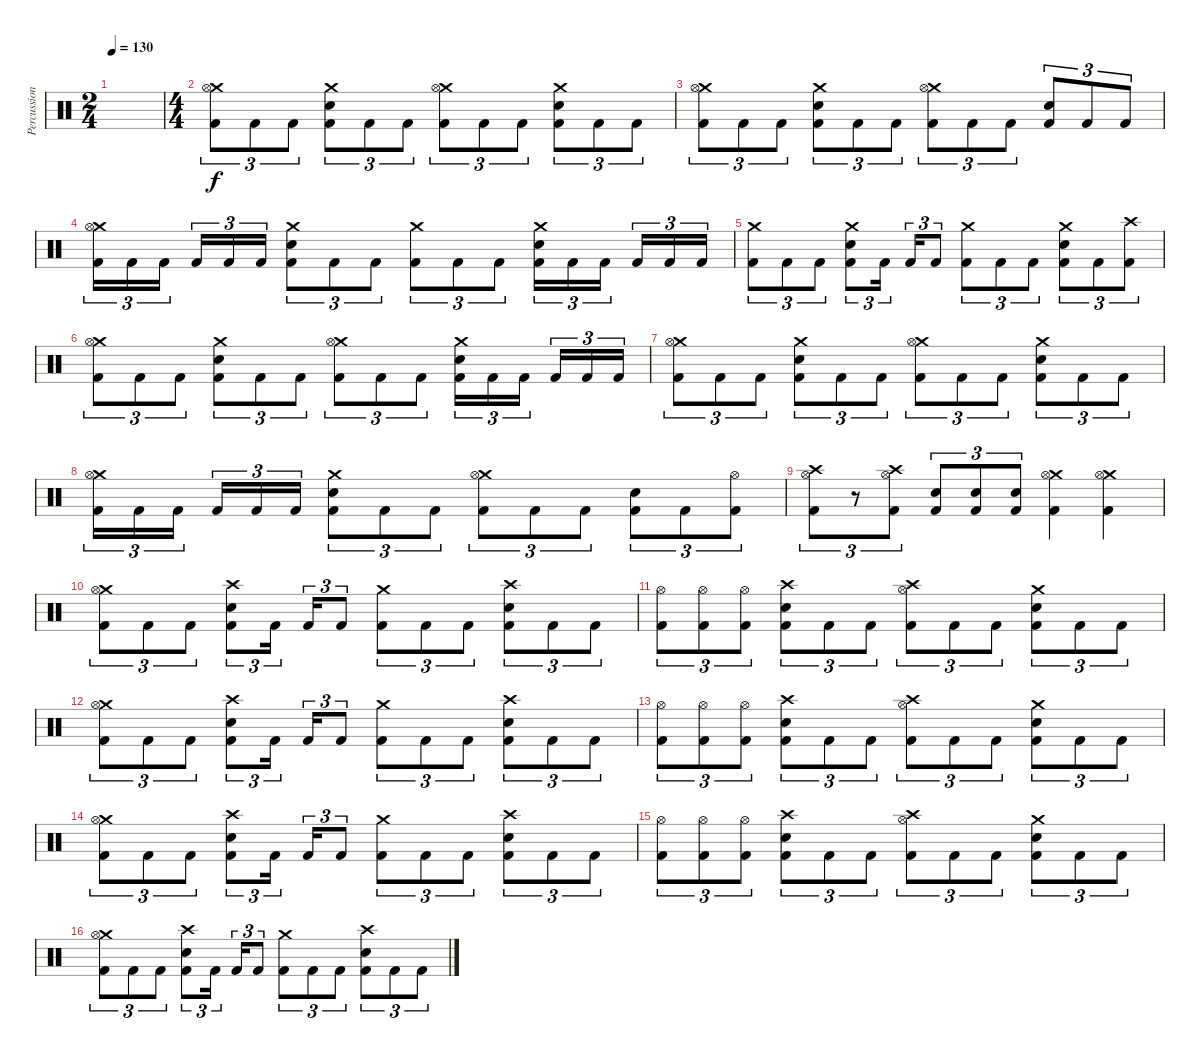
\track ("Percussion" "Percussion") {instrument percussion}
\staff {score}
\articulation defaults
\ts (2 4)
\tempo 130
\clef neutral
\ks c
|
\ts (4 4)
("Crash medium (hit)" "Hi-Hat (open)" "Kick (hit) 2").8{tu (3 2)} "Kick (hit) 2".8{tu (3 2)} "Kick (hit) 2".8{tu (3 2)} ("Crash medium (hit)" "Snare (hit) 2" "Kick (hit) 2").8{tu (3 2)} "Kick (hit) 2".8{tu (3 2)} "Kick (hit) 2".8{tu (3 2)} ("Crash medium (hit)" "Hi-Hat (open)" "Kick (hit) 2").8{tu (3 2)} "Kick (hit) 2".8{tu (3 2)} "Kick (hit) 2".8{tu (3 2)} ("Crash medium (hit)" "Snare (hit) 2" "Kick (hit) 2").8{tu (3 2)} "Kick (hit) 2".8{tu (3 2)} "Kick (hit) 2".8{tu (3 2)} |
("Crash medium (hit)" "Hi-Hat (open)" "Kick (hit) 2").8{tu (3 2)} "Kick (hit) 2".8{tu (3 2)} "Kick (hit) 2".8{tu (3 2)} ("Crash medium (hit)" "Snare (hit) 2" "Kick (hit) 2").8{tu (3 2)} "Kick (hit) 2".8{tu (3 2)} "Kick (hit) 2".8{tu (3 2)} ("Crash medium (hit)" "Hi-Hat (open)" "Kick (hit) 2").8{tu (3 2)} "Kick (hit) 2".8{tu (3 2)} "Kick (hit) 2".8{tu (3 2)} ("Snare (hit) 2" "Kick (hit) 2").8{tu (3 2)} "Kick (hit) 2".8{tu (3 2)} "Kick (hit) 2".8{tu (3 2)} |
("Crash medium (hit)" "Hi-Hat (open)" "Kick (hit) 2").16{tu (3 2)} "Kick (hit) 2".16{tu (3 2)} "Kick (hit) 2".16{tu (3 2)} "Kick (hit) 2".16{tu (3 2)} "Kick (hit) 2".16{tu (3 2)} "Kick (hit) 2".16{tu (3 2)} ("Crash medium (hit)" "Snare (hit) 2" "Kick (hit) 2").8{tu (3 2)} "Kick (hit) 2".8{tu (3 2)} "Kick (hit) 2".8{tu (3 2)} ("Crash medium (hit)" "Kick (hit) 2").8{tu (3 2)} "Kick (hit) 2".8{tu (3 2)} "Kick (hit) 2".8{tu (3 2)} ("Crash medium (hit)" "Snare (hit) 2" "Kick (hit) 2").16{tu (3 2)} "Kick (hit) 2".16{tu (3 2)} "Kick (hit) 2".16{tu (3 2)} "Kick (hit) 2".16{tu (3 2)} "Kick (hit) 2".16{tu (3 2)} "Kick (hit) 2".16{tu (3 2)} |
("Crash medium (hit)" "Kick (hit) 2").8{tu (3 2)} "Kick (hit) 2".8{tu (3 2)} "Kick (hit) 2".8{tu (3 2)} ("Crash medium (hit)" "Snare (hit) 2" "Kick (hit) 2").8{tu (3 2)} "Kick (hit) 2".16{tu (3 2)} "Kick (hit) 2".16{tu (3 2)} "Kick (hit) 2".8{tu (3 2)} ("Crash medium (hit)" "Kick (hit) 2").8{tu (3 2)} "Kick (hit) 2".8{tu (3 2)} "Kick (hit) 2".8{tu (3 2)} ("Crash medium (hit)" "Snare (hit) 2" "Kick (hit) 2").8{tu (3 2)} "Kick (hit) 2".8{tu (3 2)} ("Crash high (hit)" "Kick (hit) 2").8{tu (3 2)} |
("Crash medium (hit)" "Hi-Hat (open)" "Kick (hit) 2").8{tu (3 2)} "Kick (hit) 2".8{tu (3 2)} "Kick (hit) 2".8{tu (3 2)} ("Crash medium (hit)" "Snare (hit) 2" "Kick (hit) 2").8{tu (3 2)} "Kick (hit) 2".8{tu (3 2)} "Kick (hit) 2".8{tu (3 2)} ("Crash medium (hit)" "Hi-Hat (open)" "Kick (hit) 2").8{tu (3 2)} "Kick (hit) 2".8{tu (3 2)} "Kick (hit) 2".8{tu (3 2)} ("Crash medium (hit)" "Snare (hit) 2" "Kick (hit) 2").16{tu (3 2)} "Kick (hit) 2".16{tu (3 2)} "Kick (hit) 2".16{tu (3 2)} "Kick (hit) 2".16{tu (3 2)} "Kick (hit) 2".16{tu (3 2)} "Kick (hit) 2".16{tu (3 2)} |
("Crash medium (hit)" "Hi-Hat (open)" "Kick (hit) 2").8{tu (3 2)} "Kick (hit) 2".8{tu (3 2)} "Kick (hit) 2".8{tu (3 2)} ("Crash medium (hit)" "Snare (hit) 2" "Kick (hit) 2").8{tu (3 2)} "Kick (hit) 2".8{tu (3 2)} "Kick (hit) 2".8{tu (3 2)} ("Crash medium (hit)" "Hi-Hat (open)" "Kick (hit) 2").8{tu (3 2)} "Kick (hit) 2".8{tu (3 2)} "Kick (hit) 2".8{tu (3 2)} ("Crash medium (hit)" "Snare (hit) 2" "Kick (hit) 2").8{tu (3 2)} "Kick (hit) 2".8{tu (3 2)} "Kick (hit) 2".8{tu (3 2)} |
("Crash medium (hit)" "Hi-Hat (open)" "Kick (hit) 2").16{tu (3 2)} "Kick (hit) 2".16{tu (3 2)} "Kick (hit) 2".16{tu (3 2)} "Kick (hit) 2".16{tu (3 2)} "Kick (hit) 2".16{tu (3 2)} "Kick (hit) 2".16{tu (3 2)} ("Crash medium (hit)" "Snare (hit) 2" "Kick (hit) 2").8{tu (3 2)} "Kick (hit) 2".8{tu (3 2)} "Kick (hit) 2".8{tu (3 2)} ("Crash medium (hit)" "Hi-Hat (open)" "Kick (hit) 2").8{tu (3 2)} "Kick (hit) 2".8{tu (3 2)} "Kick (hit) 2".8{tu (3 2)} ("Snare (hit) 2" "Kick (hit) 2").8{tu (3 2)} "Kick (hit) 2".8{tu (3 2)} ("Hi-Hat (open)" "Kick (hit) 2").8{tu (3 2)} |
("Crash high (hit)" "Hi-Hat (open)" "Kick (hit) 2").8{tu (3 2)} r.8{tu (3 2)} ("Crash high (hit)" "Hi-Hat (open)" "Kick (hit) 2").8{tu (3 2)} ("Snare (hit) 2" "Kick (hit) 2").8{tu (3 2)} ("Snare (hit) 2" "Kick (hit) 2").8{tu (3 2)} ("Snare (hit) 2" "Kick (hit) 2").8{tu (3 2)} ("Crash medium (hit)" "Hi-Hat (open)" "Kick (hit) 2").4 ("Crash medium (hit)" "Hi-Hat (open)" "Kick (hit) 2").4 |
("Crash medium (hit)" "Hi-Hat (open)" "Kick (hit) 2").8{tu (3 2)} "Kick (hit) 2".8{tu (3 2)} "Kick (hit) 2".8{tu (3 2)} ("Crash high (hit)" "Snare (hit) 2" "Kick (hit) 2").8{tu (3 2)} "Kick (hit) 2".16{tu (3 2)} "Kick (hit) 2".16{tu (3 2)} "Kick (hit) 2".8{tu (3 2)} ("Crash medium (hit)" "Kick (hit) 2").8{tu (3 2)} "Kick (hit) 2".8{tu (3 2)} "Kick (hit) 2".8{tu (3 2)} ("Crash high (hit)" "Snare (hit) 2" "Kick (hit) 2").8{tu (3 2)} "Kick (hit) 2".8{tu (3 2)} "Kick (hit) 2".8{tu (3 2)} |
("Hi-Hat (open)" "Kick (hit) 2").8{tu (3 2)} ("Hi-Hat (open)" "Kick (hit) 2").8{tu (3 2)} ("Hi-Hat (open)" "Kick (hit) 2").8{tu (3 2)} ("Crash high (hit)" "Snare (hit) 2" "Kick (hit) 2").8{tu (3 2)} "Kick (hit) 2".8{tu (3 2)} "Kick (hit) 2".8{tu (3 2)} ("Crash high (hit)" "Hi-Hat (open)" "Kick (hit) 2").8{tu (3 2)} "Kick (hit) 2".8{tu (3 2)} "Kick (hit) 2".8{tu (3 2)} ("Crash medium (hit)" "Snare (hit) 2" "Kick (hit) 2").8{tu (3 2)} "Kick (hit) 2".8{tu (3 2)} "Kick (hit) 2".8{tu (3 2)} |
("Crash medium (hit)" "Hi-Hat (open)" "Kick (hit) 2").8{tu (3 2)} "Kick (hit) 2".8{tu (3 2)} "Kick (hit) 2".8{tu (3 2)} ("Crash high (hit)" "Snare (hit) 2" "Kick (hit) 2").8{tu (3 2)} "Kick (hit) 2".16{tu (3 2)} "Kick (hit) 2".16{tu (3 2)} "Kick (hit) 2".8{tu (3 2)} ("Crash medium (hit)" "Kick (hit) 2").8{tu (3 2)} "Kick (hit) 2".8{tu (3 2)} "Kick (hit) 2".8{tu (3 2)} ("Crash high (hit)" "Snare (hit) 2" "Kick (hit) 2").8{tu (3 2)} "Kick (hit) 2".8{tu (3 2)} "Kick (hit) 2".8{tu (3 2)} |
("Hi-Hat (open)" "Kick (hit) 2").8{tu (3 2)} ("Hi-Hat (open)" "Kick (hit) 2").8{tu (3 2)} ("Hi-Hat (open)" "Kick (hit) 2").8{tu (3 2)} ("Crash high (hit)" "Snare (hit) 2" "Kick (hit) 2").8{tu (3 2)} "Kick (hit) 2".8{tu (3 2)} "Kick (hit) 2".8{tu (3 2)} ("Crash high (hit)" "Hi-Hat (open)" "Kick (hit) 2").8{tu (3 2)} "Kick (hit) 2".8{tu (3 2)} "Kick (hit) 2".8{tu (3 2)} ("Crash medium (hit)" "Snare (hit) 2" "Kick (hit) 2").8{tu (3 2)} "Kick (hit) 2".8{tu (3 2)} "Kick (hit) 2".8{tu (3 2)} |
("Crash medium (hit)" "Hi-Hat (open)" "Kick (hit) 2").8{tu (3 2)} "Kick (hit) 2".8{tu (3 2)} "Kick (hit) 2".8{tu (3 2)} ("Crash high (hit)" "Snare (hit) 2" "Kick (hit) 2").8{tu (3 2)} "Kick (hit) 2".16{tu (3 2)} "Kick (hit) 2".16{tu (3 2)} "Kick (hit) 2".8{tu (3 2)} ("Crash medium (hit)" "Kick (hit) 2").8{tu (3 2)} "Kick (hit) 2".8{tu (3 2)} "Kick (hit) 2".8{tu (3 2)} ("Crash high (hit)" "Snare (hit) 2" "Kick (hit) 2").8{tu (3 2)} "Kick (hit) 2".8{tu (3 2)} "Kick (hit) 2".8{tu (3 2)} |
("Hi-Hat (open)" "Kick (hit) 2").8{tu (3 2)} ("Hi-Hat (open)" "Kick (hit) 2").8{tu (3 2)} ("Hi-Hat (open)" "Kick (hit) 2").8{tu (3 2)} ("Crash high (hit)" "Snare (hit) 2" "Kick (hit) 2").8{tu (3 2)} "Kick (hit) 2".8{tu (3 2)} "Kick (hit) 2".8{tu (3 2)} ("Crash high (hit)" "Hi-Hat (open)" "Kick (hit) 2").8{tu (3 2)} "Kick (hit) 2".8{tu (3 2)} "Kick (hit) 2".8{tu (3 2)} ("Crash medium (hit)" "Snare (hit) 2" "Kick (hit) 2").8{tu (3 2)} "Kick (hit) 2".8{tu (3 2)} "Kick (hit) 2".8{tu (3 2)} |
("Crash medium (hit)" "Hi-Hat (open)" "Kick (hit) 2").8{tu (3 2)} "Kick (hit) 2".8{tu (3 2)} "Kick (hit) 2".8{tu (3 2)} ("Crash high (hit)" "Snare (hit) 2" "Kick (hit) 2").8{tu (3 2)} "Kick (hit) 2".16{tu (3 2)} "Kick (hit) 2".16{tu (3 2)} "Kick (hit) 2".8{tu (3 2)} ("Crash medium (hit)" "Kick (hit) 2").8{tu (3 2)} "Kick (hit) 2".8{tu (3 2)} "Kick (hit) 2".8{tu (3 2)} ("Crash high (hit)" "Snare (hit) 2" "Kick (hit) 2").8{tu (3 2)} "Kick (hit) 2".8{tu (3 2)} "Kick (hit) 2".8{tu (3 2)}
